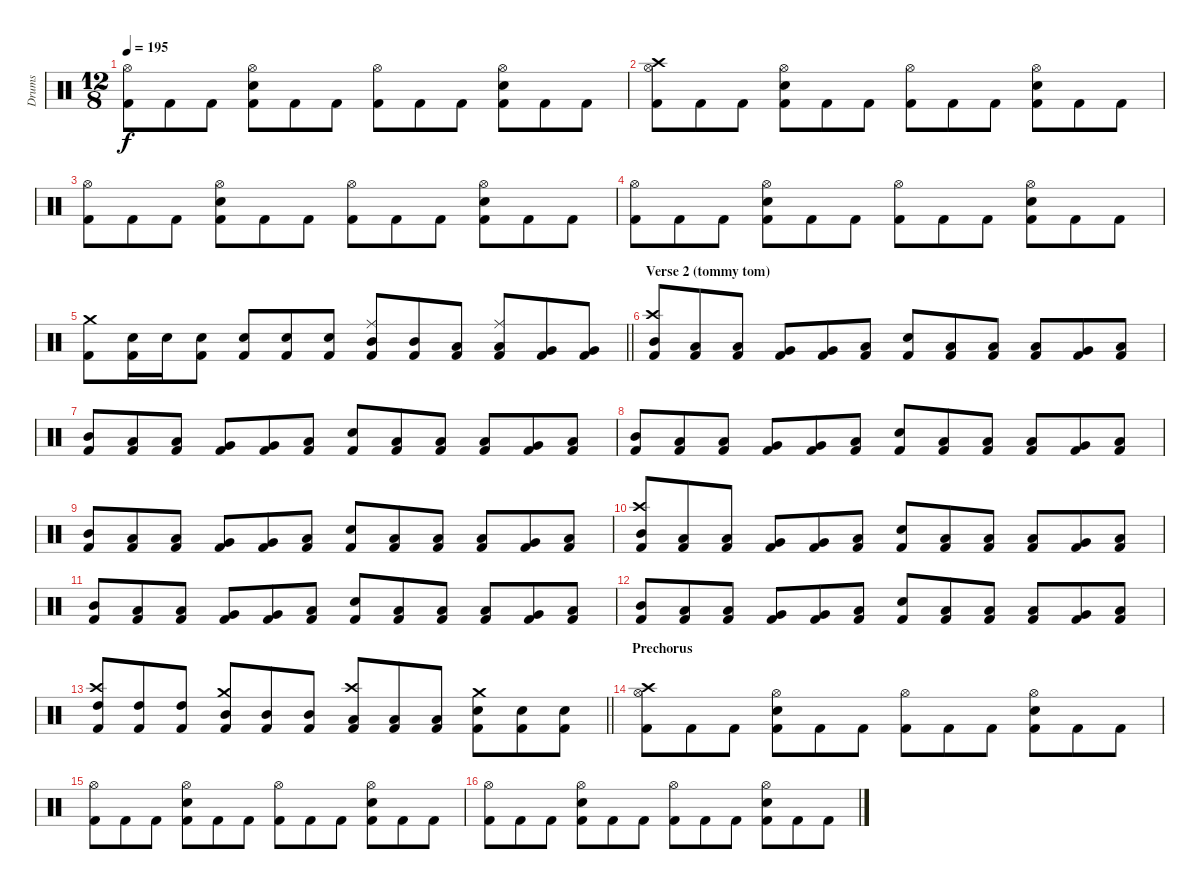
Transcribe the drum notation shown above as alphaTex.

\track ("Drums" "Drums") {instrument percussion}
\staff {score}
\articulation defaults
\ts (12 8)
\tempo 195
\clef neutral
\ks c
("Hi-Hat (open)" "Kick (hit) 2").8{dy f} "Kick (hit) 2".8 "Kick (hit) 2".8 ("Hi-Hat (open)" "Snare (hit) 2" "Kick (hit) 2").8 "Kick (hit) 2".8 "Kick (hit) 2".8 ("Hi-Hat (open)" "Kick (hit) 2").8 "Kick (hit) 2".8 "Kick (hit) 2".8 ("Hi-Hat (open)" "Snare (hit) 2" "Kick (hit) 2").8 "Kick (hit) 2".8 "Kick (hit) 2".8 |
("Crash high (hit)" "Hi-Hat (open)" "Kick (hit) 2").8 "Kick (hit) 2".8 "Kick (hit) 2".8 ("Hi-Hat (open)" "Snare (hit) 2" "Kick (hit) 2").8 "Kick (hit) 2".8 "Kick (hit) 2".8 ("Hi-Hat (open)" "Kick (hit) 2").8 "Kick (hit) 2".8 "Kick (hit) 2".8 ("Hi-Hat (open)" "Snare (hit) 2" "Kick (hit) 2").8 "Kick (hit) 2".8 "Kick (hit) 2".8 |
("Hi-Hat (open)" "Kick (hit) 2").8 "Kick (hit) 2".8 "Kick (hit) 2".8 ("Hi-Hat (open)" "Snare (hit) 2" "Kick (hit) 2").8 "Kick (hit) 2".8 "Kick (hit) 2".8 ("Hi-Hat (open)" "Kick (hit) 2").8 "Kick (hit) 2".8 "Kick (hit) 2".8 ("Hi-Hat (open)" "Snare (hit) 2" "Kick (hit) 2").8 "Kick (hit) 2".8 "Kick (hit) 2".8 |
("Hi-Hat (open)" "Kick (hit) 2").8 "Kick (hit) 2".8 "Kick (hit) 2".8 ("Hi-Hat (open)" "Snare (hit) 2" "Kick (hit) 2").8 "Kick (hit) 2".8 "Kick (hit) 2".8 ("Hi-Hat (open)" "Kick (hit) 2").8 "Kick (hit) 2".8 "Kick (hit) 2".8 ("Hi-Hat (open)" "Snare (hit) 2" "Kick (hit) 2").8 "Kick (hit) 2".8 "Kick (hit) 2".8 |
\barLineRight lightlight
("Crash medium (hit)" "Kick (hit) 2").8 ("Snare (hit) 2" "Kick (hit) 2").16 "Snare (hit) 2".16 ("Snare (hit) 2" "Kick (hit) 2").8 ("Snare (hit) 2" "Kick (hit) 2").8 ("Snare (hit) 2" "Kick (hit) 2").8 ("Snare (hit) 2" "Kick (hit) 2").8 ("Ride (middle)" "Mid Tom (hit)" "Kick (hit) 2").8 ("Mid Tom (hit)" "Kick (hit) 2").8 ("Low Tom (hit)" "Kick (hit) 2").8 ("Ride (middle)" "Low Tom (hit)" "Kick (hit) 2").8 ("Very Low Tom (hit)" "Kick (hit) 2").8 ("Very Low Tom (hit)" "Kick (hit) 2").8 |
\section ("" "Verse 2 (tommy tom)")
("Crash high (hit)" "Mid Tom (hit)" "Kick (hit) 2").8 ("Low Tom (hit)" "Kick (hit) 2").8 ("Low Tom (hit)" "Kick (hit) 2").8 ("Very Low Tom (hit)" "Kick (hit) 2").8 ("Very Low Tom (hit)" "Kick (hit) 2").8 ("Low Floor Tom (hit)" "Kick (hit) 2").8 ("Snare (hit) 2" "Kick (hit) 2").8 ("Low Floor Tom (hit)" "Kick (hit) 2").8 ("Low Floor Tom (hit)" "Kick (hit) 2").8 ("Low Tom (hit)" "Kick (hit) 2").8 ("Very Low Tom (hit)" "Kick (hit) 2").8 ("Low Floor Tom (hit)" "Kick (hit) 2").8 |
("Mid Tom (hit)" "Kick (hit) 2").8 ("Low Tom (hit)" "Kick (hit) 2").8 ("Low Tom (hit)" "Kick (hit) 2").8 ("Very Low Tom (hit)" "Kick (hit) 2").8 ("Very Low Tom (hit)" "Kick (hit) 2").8 ("Low Floor Tom (hit)" "Kick (hit) 2").8 ("Snare (hit) 2" "Kick (hit) 2").8 ("Low Floor Tom (hit)" "Kick (hit) 2").8 ("Low Floor Tom (hit)" "Kick (hit) 2").8 ("Low Tom (hit)" "Kick (hit) 2").8 ("Very Low Tom (hit)" "Kick (hit) 2").8 ("Low Floor Tom (hit)" "Kick (hit) 2").8 |
("Mid Tom (hit)" "Kick (hit) 2").8 ("Low Tom (hit)" "Kick (hit) 2").8 ("Low Tom (hit)" "Kick (hit) 2").8 ("Very Low Tom (hit)" "Kick (hit) 2").8 ("Very Low Tom (hit)" "Kick (hit) 2").8 ("Low Floor Tom (hit)" "Kick (hit) 2").8 ("Snare (hit) 2" "Kick (hit) 2").8 ("Low Floor Tom (hit)" "Kick (hit) 2").8 ("Low Floor Tom (hit)" "Kick (hit) 2").8 ("Low Tom (hit)" "Kick (hit) 2").8 ("Very Low Tom (hit)" "Kick (hit) 2").8 ("Low Floor Tom (hit)" "Kick (hit) 2").8 |
("Mid Tom (hit)" "Kick (hit) 2").8 ("Low Tom (hit)" "Kick (hit) 2").8 ("Low Tom (hit)" "Kick (hit) 2").8 ("Very Low Tom (hit)" "Kick (hit) 2").8 ("Very Low Tom (hit)" "Kick (hit) 2").8 ("Low Floor Tom (hit)" "Kick (hit) 2").8 ("Snare (hit) 2" "Kick (hit) 2").8 ("Low Floor Tom (hit)" "Kick (hit) 2").8 ("Low Floor Tom (hit)" "Kick (hit) 2").8 ("Low Tom (hit)" "Kick (hit) 2").8 ("Very Low Tom (hit)" "Kick (hit) 2").8 ("Low Floor Tom (hit)" "Kick (hit) 2").8 |
("Crash high (hit)" "Mid Tom (hit)" "Kick (hit) 2").8 ("Low Tom (hit)" "Kick (hit) 2").8 ("Low Tom (hit)" "Kick (hit) 2").8 ("Very Low Tom (hit)" "Kick (hit) 2").8 ("Very Low Tom (hit)" "Kick (hit) 2").8 ("Low Floor Tom (hit)" "Kick (hit) 2").8 ("Snare (hit) 2" "Kick (hit) 2").8 ("Low Floor Tom (hit)" "Kick (hit) 2").8 ("Low Floor Tom (hit)" "Kick (hit) 2").8 ("Low Tom (hit)" "Kick (hit) 2").8 ("Very Low Tom (hit)" "Kick (hit) 2").8 ("Low Floor Tom (hit)" "Kick (hit) 2").8 |
("Mid Tom (hit)" "Kick (hit) 2").8 ("Low Tom (hit)" "Kick (hit) 2").8 ("Low Tom (hit)" "Kick (hit) 2").8 ("Very Low Tom (hit)" "Kick (hit) 2").8 ("Very Low Tom (hit)" "Kick (hit) 2").8 ("Low Floor Tom (hit)" "Kick (hit) 2").8 ("Snare (hit) 2" "Kick (hit) 2").8 ("Low Floor Tom (hit)" "Kick (hit) 2").8 ("Low Floor Tom (hit)" "Kick (hit) 2").8 ("Low Tom (hit)" "Kick (hit) 2").8 ("Very Low Tom (hit)" "Kick (hit) 2").8 ("Low Floor Tom (hit)" "Kick (hit) 2").8 |
("Mid Tom (hit)" "Kick (hit) 2").8 ("Low Tom (hit)" "Kick (hit) 2").8 ("Low Tom (hit)" "Kick (hit) 2").8 ("Very Low Tom (hit)" "Kick (hit) 2").8 ("Very Low Tom (hit)" "Kick (hit) 2").8 ("Low Floor Tom (hit)" "Kick (hit) 2").8 ("Snare (hit) 2" "Kick (hit) 2").8 ("Low Floor Tom (hit)" "Kick (hit) 2").8 ("Low Floor Tom (hit)" "Kick (hit) 2").8 ("Low Tom (hit)" "Kick (hit) 2").8 ("Very Low Tom (hit)" "Kick (hit) 2").8 ("Low Floor Tom (hit)" "Kick (hit) 2").8 |
\barLineRight lightlight
("Crash high (hit)" "High Tom (hit)" "Kick (hit) 2").8 ("High Tom (hit)" "Kick (hit) 2").8 ("High Tom (hit)" "Kick (hit) 2").8 ("Crash medium (hit)" "Mid Tom (hit)" "Kick (hit) 2").8 ("Mid Tom (hit)" "Kick (hit) 2").8 ("Mid Tom (hit)" "Kick (hit) 2").8 ("Crash high (hit)" "Low Tom (hit)" "Kick (hit) 2").8 ("Low Tom (hit)" "Kick (hit) 2").8 ("Low Tom (hit)" "Kick (hit) 2").8 ("Crash medium (hit)" "Snare (hit) 2" "Kick (hit) 2").8 ("Snare (hit) 2" "Kick (hit) 2").8 ("Snare (hit) 2" "Kick (hit) 2").8 |
\section ("" "Prechorus")
("Crash high (hit)" "Hi-Hat (open)" "Kick (hit) 2").8 "Kick (hit) 2".8 "Kick (hit) 2".8 ("Hi-Hat (open)" "Snare (hit) 2" "Kick (hit) 2").8 "Kick (hit) 2".8 "Kick (hit) 2".8 ("Hi-Hat (open)" "Kick (hit) 2").8 "Kick (hit) 2".8 "Kick (hit) 2".8 ("Hi-Hat (open)" "Snare (hit) 2" "Kick (hit) 2").8 "Kick (hit) 2".8 "Kick (hit) 2".8 |
("Hi-Hat (open)" "Kick (hit) 2").8 "Kick (hit) 2".8 "Kick (hit) 2".8 ("Hi-Hat (open)" "Snare (hit) 2" "Kick (hit) 2").8 "Kick (hit) 2".8 "Kick (hit) 2".8 ("Hi-Hat (open)" "Kick (hit) 2").8 "Kick (hit) 2".8 "Kick (hit) 2".8 ("Hi-Hat (open)" "Snare (hit) 2" "Kick (hit) 2").8 "Kick (hit) 2".8 "Kick (hit) 2".8 |
("Hi-Hat (open)" "Kick (hit) 2").8 "Kick (hit) 2".8 "Kick (hit) 2".8 ("Hi-Hat (open)" "Snare (hit) 2" "Kick (hit) 2").8 "Kick (hit) 2".8 "Kick (hit) 2".8 ("Hi-Hat (open)" "Kick (hit) 2").8 "Kick (hit) 2".8 "Kick (hit) 2".8 ("Hi-Hat (open)" "Snare (hit) 2" "Kick (hit) 2").8 "Kick (hit) 2".8 "Kick (hit) 2".8
